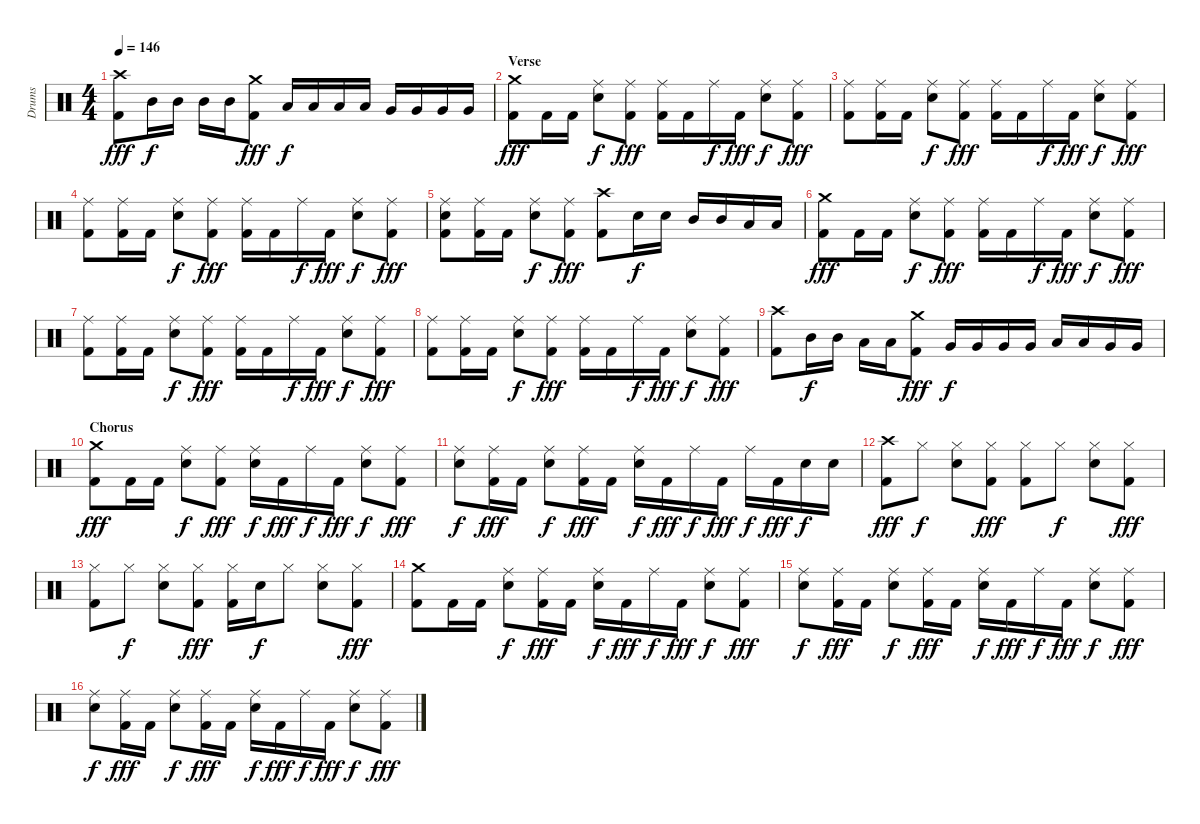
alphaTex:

\track ("Drums" "Drums") {instrument percussion}
\staff {score}
\articulation defaults
\ts (4 4)
\tempo 146
\clef neutral
\ks c
("Crash high (hit)" "Kick (hit) 2").8{dy fff} "Mid Tom (hit)".16{dy f} "Mid Tom (hit)".16 "Mid Tom (hit)".16 "Mid Tom (hit)".16 ("Crash medium (hit)" "Kick (hit) 2").8{dy fff} "Low Tom (hit)".16{dy f} "Low Tom (hit)".16 "Low Tom (hit)".16 "Low Tom (hit)".16 "Very Low Tom (hit)".16 "Very Low Tom (hit)".16 "Very Low Tom (hit)".16 "Very Low Tom (hit)".16 |
\section ("" "Verse")
("Crash medium (hit)" "Kick (hit) 2").8{dy fff} "Kick (hit) 2".16 "Kick (hit) 2".16 ("Ride (middle)" "Snare (hit) 2").8{dy f} ("Ride (middle)" "Kick (hit) 2").8{dy fff} ("Ride (middle)" "Kick (hit) 2").16 "Kick (hit) 2".16 "Ride (middle)".16{dy f} "Kick (hit) 2".16{dy fff} ("Ride (middle)" "Snare (hit) 2").8{dy f} ("Ride (middle)" "Kick (hit) 2").8{dy fff} |
("Ride (middle)" "Kick (hit) 2").8 ("Ride (middle)" "Kick (hit) 2").16 "Kick (hit) 2".16 ("Ride (middle)" "Snare (hit) 2").8{dy f} ("Ride (middle)" "Kick (hit) 2").8{dy fff} ("Ride (middle)" "Kick (hit) 2").16 "Kick (hit) 2".16 "Ride (middle)".16{dy f} "Kick (hit) 2".16{dy fff} ("Ride (middle)" "Snare (hit) 2").8{dy f} ("Ride (middle)" "Kick (hit) 2").8{dy fff} |
("Ride (middle)" "Kick (hit) 2").8 ("Ride (middle)" "Kick (hit) 2").16 "Kick (hit) 2".16 ("Ride (middle)" "Snare (hit) 2").8{dy f} ("Ride (middle)" "Kick (hit) 2").8{dy fff} ("Ride (middle)" "Kick (hit) 2").16 "Kick (hit) 2".16 "Ride (middle)".16{dy f} "Kick (hit) 2".16{dy fff} ("Ride (middle)" "Snare (hit) 2").8{dy f} ("Ride (middle)" "Kick (hit) 2").8{dy fff} |
("Ride (middle)" "Snare (hit) 2" "Kick (hit) 2").8 ("Ride (middle)" "Kick (hit) 2").16 "Kick (hit) 2".16 ("Ride (middle)" "Snare (hit) 2").8{dy f} ("Ride (middle)" "Kick (hit) 2").8{dy fff} ("Crash high (hit)" "Kick (hit) 2").8 "Snare (hit) 2".16{dy f} "Snare (hit) 2".16 "Mid Tom (hit)".16 "Mid Tom (hit)".16 "Low Tom (hit)".16 "Low Tom (hit)".16 |
("Crash medium (hit)" "Kick (hit) 2").8{dy fff} "Kick (hit) 2".16 "Kick (hit) 2".16 ("Ride (middle)" "Snare (hit) 2").8{dy f} ("Ride (middle)" "Kick (hit) 2").8{dy fff} ("Ride (middle)" "Kick (hit) 2").16 "Kick (hit) 2".16 "Ride (middle)".16{dy f} "Kick (hit) 2".16{dy fff} ("Ride (middle)" "Snare (hit) 2").8{dy f} ("Ride (middle)" "Kick (hit) 2").8{dy fff} |
("Ride (middle)" "Kick (hit) 2").8 ("Ride (middle)" "Kick (hit) 2").16 "Kick (hit) 2".16 ("Ride (middle)" "Snare (hit) 2").8{dy f} ("Ride (middle)" "Kick (hit) 2").8{dy fff} ("Ride (middle)" "Kick (hit) 2").16 "Kick (hit) 2".16 "Ride (middle)".16{dy f} "Kick (hit) 2".16{dy fff} ("Ride (middle)" "Snare (hit) 2").8{dy f} ("Ride (middle)" "Kick (hit) 2").8{dy fff} |
("Ride (middle)" "Kick (hit) 2").8 ("Ride (middle)" "Kick (hit) 2").16 "Kick (hit) 2".16 ("Ride (middle)" "Snare (hit) 2").8{dy f} ("Ride (middle)" "Kick (hit) 2").8{dy fff} ("Ride (middle)" "Kick (hit) 2").16 "Kick (hit) 2".16 "Ride (middle)".16{dy f} "Kick (hit) 2".16{dy fff} ("Ride (middle)" "Snare (hit) 2").8{dy f} ("Ride (middle)" "Kick (hit) 2").8{dy fff} |
("Crash high (hit)" "Kick (hit) 2").8 "Mid Tom (hit)".16{dy f} "Mid Tom (hit)".16 "Low Tom (hit)".16 "Low Tom (hit)".16 ("Crash medium (hit)" "Kick (hit) 2").8{dy fff} "Very Low Tom (hit)".16{dy f} "Very Low Tom (hit)".16 "Very Low Tom (hit)".16 "Very Low Tom (hit)".16 "Low Tom (hit)".16 "Low Tom (hit)".16 "Very Low Tom (hit)".16 "Very Low Tom (hit)".16 |
\section ("" "Chorus")
("Crash medium (hit)" "Kick (hit) 2").8{dy fff} "Kick (hit) 2".16 "Kick (hit) 2".16 ("Ride (middle)" "Snare (hit) 2").8{dy f} ("Ride (middle)" "Kick (hit) 2").8{dy fff} ("Ride (middle)" "Snare (hit) 2").16{dy f} "Kick (hit) 2".16{dy fff} "Ride (middle)".16{dy f} "Kick (hit) 2".16{dy fff} ("Ride (middle)" "Snare (hit) 2").8{dy f} ("Ride (middle)" "Kick (hit) 2").8{dy fff} |
("Ride (middle)" "Snare (hit) 2").8{dy f} ("Ride (middle)" "Kick (hit) 2").16{dy fff} "Kick (hit) 2".16 ("Ride (middle)" "Snare (hit) 2").8{dy f} ("Ride (middle)" "Kick (hit) 2").16{dy fff} "Kick (hit) 2".16 ("Ride (middle)" "Snare (hit) 2").16{dy f} "Kick (hit) 2".16{dy fff} "Ride (middle)".16{dy f} "Kick (hit) 2".16{dy fff} "Ride (middle)".16{dy f} "Kick (hit) 2".16{dy fff} "Snare (hit) 2".16{dy f} "Snare (hit) 2".16 |
("Crash high (hit)" "Kick (hit) 2").8{dy fff} "Hi-Hat (closed)".8{dy f} ("Hi-Hat (closed)" "Snare (hit) 2").8 ("Hi-Hat (closed)" "Kick (hit) 2").8{dy fff} ("Hi-Hat (closed)" "Kick (hit) 2").8 "Hi-Hat (closed)".8{dy f} ("Hi-Hat (closed)" "Snare (hit) 2").8 ("Hi-Hat (closed)" "Kick (hit) 2").8{dy fff} |
("Hi-Hat (closed)" "Kick (hit) 2").8 "Hi-Hat (closed)".8{dy f} ("Hi-Hat (closed)" "Snare (hit) 2").8 ("Hi-Hat (closed)" "Kick (hit) 2").8{dy fff} ("Hi-Hat (closed)" "Kick (hit) 2").16 "Snare (hit) 2".16{dy f} "Hi-Hat (closed)".8 ("Hi-Hat (closed)" "Snare (hit) 2").8 ("Hi-Hat (closed)" "Kick (hit) 2").8{dy fff} |
("Crash medium (hit)" "Kick (hit) 2").8 "Kick (hit) 2".16 "Kick (hit) 2".16 ("Ride (middle)" "Snare (hit) 2").8{dy f} ("Ride (middle)" "Kick (hit) 2").16{dy fff} "Kick (hit) 2".16 ("Ride (middle)" "Snare (hit) 2").16{dy f} "Kick (hit) 2".16{dy fff} "Ride (middle)".16{dy f} "Kick (hit) 2".16{dy fff} ("Ride (middle)" "Snare (hit) 2").8{dy f} ("Ride (middle)" "Kick (hit) 2").8{dy fff} |
("Ride (middle)" "Snare (hit) 2").8{dy f} ("Ride (middle)" "Kick (hit) 2").16{dy fff} "Kick (hit) 2".16 ("Ride (middle)" "Snare (hit) 2").8{dy f} ("Ride (middle)" "Kick (hit) 2").16{dy fff} "Kick (hit) 2".16 ("Ride (middle)" "Snare (hit) 2").16{dy f} "Kick (hit) 2".16{dy fff} "Ride (middle)".16{dy f} "Kick (hit) 2".16{dy fff} ("Ride (middle)" "Snare (hit) 2").8{dy f} ("Ride (middle)" "Kick (hit) 2").8{dy fff} |
("Ride (middle)" "Snare (hit) 2").8{dy f} ("Ride (middle)" "Kick (hit) 2").16{dy fff} "Kick (hit) 2".16 ("Ride (middle)" "Snare (hit) 2").8{dy f} ("Ride (middle)" "Kick (hit) 2").16{dy fff} "Kick (hit) 2".16 ("Ride (middle)" "Snare (hit) 2").16{dy f} "Kick (hit) 2".16{dy fff} "Ride (middle)".16{dy f} "Kick (hit) 2".16{dy fff} ("Ride (middle)" "Snare (hit) 2").8{dy f} ("Ride (middle)" "Kick (hit) 2").8{dy fff}
